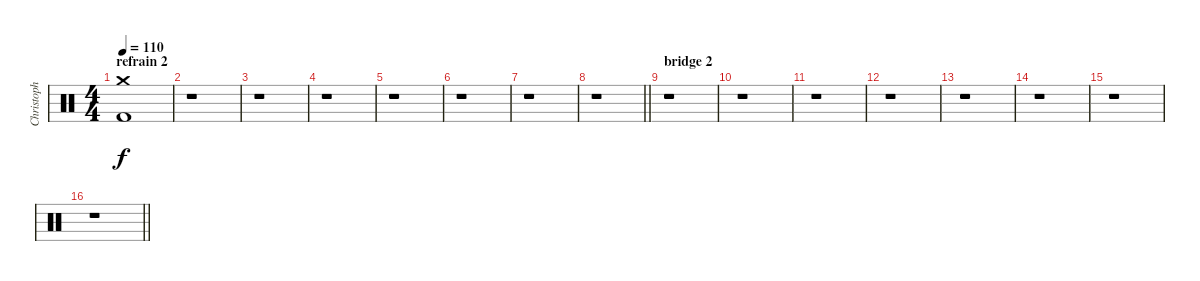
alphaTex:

\track ("Christoph" "Christoph") {instrument percussion}
\staff {score}
\articulation defaults
\ts (4 4)
\section ("" "refrain 2")
\tempo 110
\clef neutral
\ks c
("Crash medium (hit)" "Kick (hit) 2").1{dy f} |
r.1 |
r.1 |
r.1 |
r.1 |
r.1 |
r.1 |
\barLineRight lightlight
r.1 |
\section ("" "bridge 2")
r.1 |
r.1 |
r.1 |
r.1 |
r.1 |
r.1 |
r.1 |
\barLineRight lightlight
r.1
